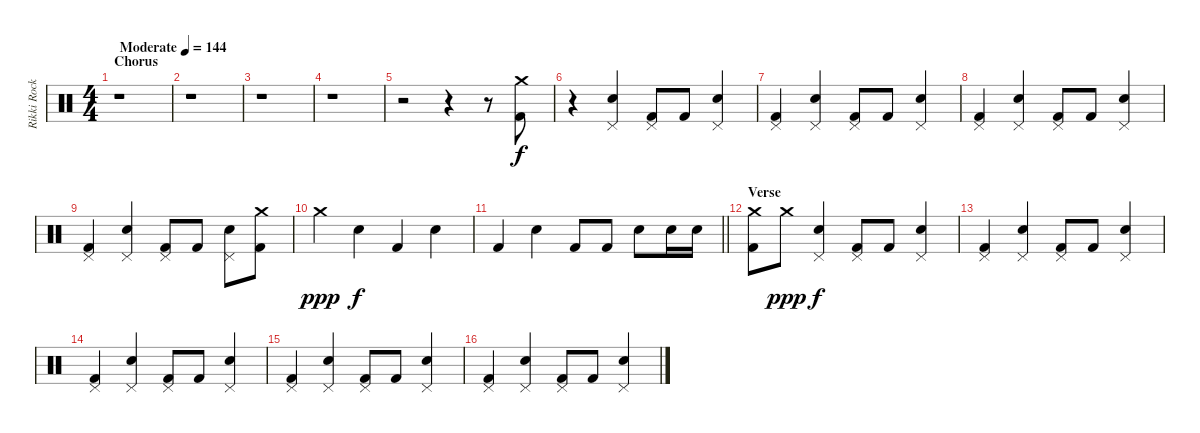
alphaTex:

\track ("Rikki Rockett - Drums" "Rikki Rock") {instrument percussion}
\staff {score}
\articulation defaults
\ts (4 4)
\section ("" "Chorus")
\tempo (144 "Moderate")
\clef neutral
\ks c
r.1{dy f} |
r.1 |
r.1 |
r.1 |
r.2 r.4 r.8 ("Crash medium (hit)" "Kick (hit) 2").8 |
r.4 ("Pedal Hi-Hat (hit)" "Electric Snare (hit)").4 ("Pedal Hi-Hat (hit)" "Kick (hit) 2").8 "Kick (hit) 2".8 ("Pedal Hi-Hat (hit)" "Electric Snare (hit)").4 |
("Pedal Hi-Hat (hit)" "Kick (hit) 2").4 ("Pedal Hi-Hat (hit)" "Electric Snare (hit)").4 ("Pedal Hi-Hat (hit)" "Kick (hit) 2").8 "Kick (hit) 2".8 ("Pedal Hi-Hat (hit)" "Electric Snare (hit)").4 |
("Pedal Hi-Hat (hit)" "Kick (hit) 2").4 ("Pedal Hi-Hat (hit)" "Electric Snare (hit)").4 ("Pedal Hi-Hat (hit)" "Kick (hit) 2").8 "Kick (hit) 2".8 ("Pedal Hi-Hat (hit)" "Electric Snare (hit)").4 |
("Pedal Hi-Hat (hit)" "Kick (hit) 2").4 ("Pedal Hi-Hat (hit)" "Electric Snare (hit)").4 ("Pedal Hi-Hat (hit)" "Kick (hit) 2").8 "Kick (hit) 2".8 ("Pedal Hi-Hat (hit)" "Electric Snare (hit)").8 ("Crash medium (hit)" "Kick (hit) 2").8 |
"Crash medium (hit)".4{dy ppp} "Electric Snare (hit)".4{dy f} "Kick (hit) 2".4 "Electric Snare (hit)".4 |
\barLineRight lightlight "Kick (hit) 2".4 "Electric Snare (hit)".4 "Kick (hit) 2".8 "Kick (hit) 2".8 "Electric Snare (hit)".8 "Electric Snare (hit)".16 "Electric Snare (hit)".16
|
\section ("" "Verse")
("Crash medium (hit)" "Kick (hit) 2").8 "Crash medium (hit)".8{dy ppp} ("Pedal Hi-Hat (hit)" "Electric Snare (hit)").4{dy f} ("Pedal Hi-Hat (hit)" "Kick (hit) 2").8 "Kick (hit) 2".8 ("Pedal Hi-Hat (hit)" "Electric Snare (hit)").4 |
("Pedal Hi-Hat (hit)" "Kick (hit) 2").4 ("Pedal Hi-Hat (hit)" "Electric Snare (hit)").4 ("Pedal Hi-Hat (hit)" "Kick (hit) 2").8 "Kick (hit) 2".8 ("Pedal Hi-Hat (hit)" "Electric Snare (hit)").4 |
("Pedal Hi-Hat (hit)" "Kick (hit) 2").4 ("Pedal Hi-Hat (hit)" "Electric Snare (hit)").4 ("Pedal Hi-Hat (hit)" "Kick (hit) 2").8 "Kick (hit) 2".8 ("Pedal Hi-Hat (hit)" "Electric Snare (hit)").4 |
("Pedal Hi-Hat (hit)" "Kick (hit) 2").4 ("Pedal Hi-Hat (hit)" "Electric Snare (hit)").4 ("Pedal Hi-Hat (hit)" "Kick (hit) 2").8 "Kick (hit) 2".8 ("Pedal Hi-Hat (hit)" "Electric Snare (hit)").4 |
("Pedal Hi-Hat (hit)" "Kick (hit) 2").4 ("Pedal Hi-Hat (hit)" "Electric Snare (hit)").4 ("Pedal Hi-Hat (hit)" "Kick (hit) 2").8 "Kick (hit) 2".8 ("Pedal Hi-Hat (hit)" "Electric Snare (hit)").4
